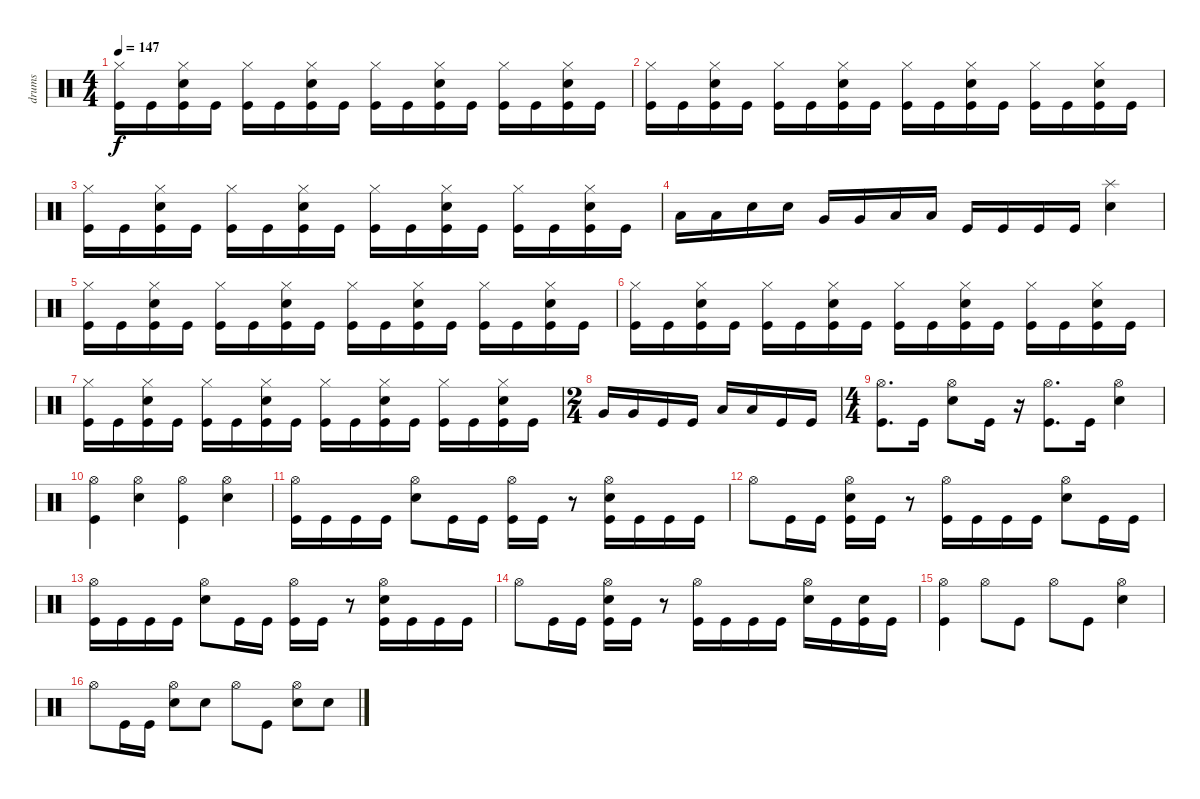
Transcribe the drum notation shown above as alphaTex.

\track ("drums" "drums") {instrument percussion}
\staff {score}
\articulation defaults
\ts (4 4)
\tempo 147
\clef neutral
\ks c
("Kick (hit)" "Hi-Hat (closed)").16{dy f} "Kick (hit)".16 ("Hi-Hat (closed)" "Snare (hit) 2" "Kick (hit)").16 "Kick (hit)".16 ("Hi-Hat (closed)" "Kick (hit)").16 "Kick (hit)".16 ("Kick (hit)" "Hi-Hat (closed)" "Snare (hit) 2").16 "Kick (hit)".16 ("Hi-Hat (closed)" "Kick (hit)").16 "Kick (hit)".16 ("Hi-Hat (closed)" "Kick (hit)" "Snare (hit) 2").16 "Kick (hit)".16 ("Hi-Hat (closed)" "Kick (hit)").16 "Kick (hit)".16 ("Snare (hit) 2" "Hi-Hat (closed)" "Kick (hit)").16 "Kick (hit)".16 |
("Hi-Hat (closed)" "Kick (hit)").16 "Kick (hit)".16 ("Kick (hit)" "Snare (hit) 2" "Hi-Hat (closed)").16 "Kick (hit)".16 ("Kick (hit)" "Hi-Hat (closed)").16 "Kick (hit)".16 ("Hi-Hat (closed)" "Kick (hit)" "Snare (hit) 2").16 "Kick (hit)".16 ("Hi-Hat (closed)" "Kick (hit)").16 "Kick (hit)".16 ("Kick (hit)" "Snare (hit) 2" "Hi-Hat (closed)").16 "Kick (hit)".16 ("Hi-Hat (closed)" "Kick (hit)").16 "Kick (hit)".16 ("Hi-Hat (closed)" "Snare (hit) 2" "Kick (hit)").16 "Kick (hit)".16 |
("Hi-Hat (closed)" "Kick (hit)").16 "Kick (hit)".16 ("Kick (hit)" "Snare (hit) 2" "Hi-Hat (closed)").16 "Kick (hit)".16 ("Kick (hit)" "Hi-Hat (closed)").16 "Kick (hit)".16 ("Hi-Hat (closed)" "Snare (hit) 2" "Kick (hit)").16 "Kick (hit)".16 ("Kick (hit)" "Hi-Hat (closed)").16 "Kick (hit)".16 ("Hi-Hat (closed)" "Kick (hit)" "Snare (hit) 2").16 "Kick (hit)".16 ("Kick (hit)" "Hi-Hat (closed)").16 "Kick (hit)".16 ("Kick (hit)" "Hi-Hat (closed)" "Snare (hit) 2").16 "Kick (hit)".16 |
"Low Floor Tom (hit)".16 "Low Floor Tom (hit)".16 "Snare (hit) 2".16 "Snare (hit) 2".16 "Very Low Tom (hit)".16 "Very Low Tom (hit)".16 "Low Floor Tom (hit)".16 "Low Floor Tom (hit)".16 "Kick (hit)".16 "Kick (hit)".16 "Kick (hit)".16 "Kick (hit)".16 ("Snare (hit) 2" "Splash (hit)").4 |
("Hi-Hat (closed)" "Kick (hit)").16 "Kick (hit)".16 ("Hi-Hat (closed)" "Kick (hit)" "Snare (hit) 2").16 "Kick (hit)".16 ("Hi-Hat (closed)" "Kick (hit)").16 "Kick (hit)".16 ("Snare (hit) 2" "Hi-Hat (closed)" "Kick (hit)").16 "Kick (hit)".16 ("Kick (hit)" "Hi-Hat (closed)").16 "Kick (hit)".16 ("Hi-Hat (closed)" "Snare (hit) 2" "Kick (hit)").16 "Kick (hit)".16 ("Kick (hit)" "Hi-Hat (closed)").16 "Kick (hit)".16 ("Hi-Hat (closed)" "Kick (hit)" "Snare (hit) 2").16 "Kick (hit)".16 |
("Kick (hit)" "Hi-Hat (closed)").16 "Kick (hit)".16 ("Kick (hit)" "Hi-Hat (closed)" "Snare (hit) 2").16 "Kick (hit)".16 ("Hi-Hat (closed)" "Kick (hit)").16 "Kick (hit)".16 ("Hi-Hat (closed)" "Snare (hit) 2" "Kick (hit)").16 "Kick (hit)".16 ("Hi-Hat (closed)" "Kick (hit)").16 "Kick (hit)".16 ("Snare (hit) 2" "Kick (hit)" "Hi-Hat (closed)").16 "Kick (hit)".16 ("Hi-Hat (closed)" "Kick (hit)").16 "Kick (hit)".16 ("Hi-Hat (closed)" "Kick (hit)" "Snare (hit) 2").16 "Kick (hit)".16 |
("Kick (hit)" "Hi-Hat (closed)").16 "Kick (hit)".16 ("Snare (hit) 2" "Kick (hit)" "Hi-Hat (closed)").16 "Kick (hit)".16 ("Kick (hit)" "Hi-Hat (closed)").16 "Kick (hit)".16 ("Snare (hit) 2" "Hi-Hat (closed)" "Kick (hit)").16 "Kick (hit)".16 ("Kick (hit)" "Hi-Hat (closed)").16 "Kick (hit)".16 ("Kick (hit)" "Hi-Hat (closed)" "Snare (hit) 2").16 "Kick (hit)".16 ("Hi-Hat (closed)" "Kick (hit)").16 "Kick (hit)".16 ("Snare (hit) 2" "Kick (hit)" "Hi-Hat (closed)").16 "Kick (hit)".16 |
\ts (2 4)
"Very Low Tom (hit)".16 "Very Low Tom (hit)".16 "Kick (hit)".16 "Kick (hit)".16 "Low Floor Tom (hit)".16 "Low Floor Tom (hit)".16 "Kick (hit)".16 "Kick (hit)".16 |
\ts (4 4)
("Hi-Hat (open)" "Kick (hit)").8{d} "Kick (hit)".16 ("Snare (hit) 2" "Hi-Hat (open)").8 "Kick (hit)".16 r.16 ("Hi-Hat (open)" "Kick (hit)").8{d} "Kick (hit)".16 ("Hi-Hat (open)" "Snare (hit) 2").4 |
("Kick (hit)" "Hi-Hat (open)").4 ("Snare (hit) 2" "Hi-Hat (open)").4 ("Kick (hit)" "Hi-Hat (open)").4 ("Snare (hit) 2" "Hi-Hat (open)").4 |
("Hi-Hat (open)" "Kick (hit)").16 "Kick (hit)".16 "Kick (hit)".16 "Kick (hit)".16 ("Snare (hit) 2" "Hi-Hat (open)").8 "Kick (hit)".16 "Kick (hit)".16 ("Kick (hit)" "Hi-Hat (open)").16 "Kick (hit)".16 r.8 ("Kick (hit)" "Hi-Hat (open)" "Snare (hit) 2").16 "Kick (hit)".16 "Kick (hit)".16 "Kick (hit)".16 |
"Hi-Hat (open)".8 "Kick (hit)".16 "Kick (hit)".16 ("Hi-Hat (open)" "Kick (hit)" "Snare (hit) 2").16 "Kick (hit)".16 r.8 ("Kick (hit)" "Hi-Hat (open)").16 "Kick (hit)".16 "Kick (hit)".16 "Kick (hit)".16 ("Snare (hit) 2" "Hi-Hat (open)").8 "Kick (hit)".16 "Kick (hit)".16 |
("Hi-Hat (open)" "Kick (hit)").16 "Kick (hit)".16 "Kick (hit)".16 "Kick (hit)".16 ("Snare (hit) 2" "Hi-Hat (open)").8 "Kick (hit)".16 "Kick (hit)".16 ("Kick (hit)" "Hi-Hat (open)").16 "Kick (hit)".16 r.8 ("Snare (hit) 2" "Kick (hit)" "Hi-Hat (open)").16 "Kick (hit)".16 "Kick (hit)".16 "Kick (hit)".16 |
"Hi-Hat (open)".8 "Kick (hit)".16 "Kick (hit)".16 ("Hi-Hat (open)" "Kick (hit)" "Snare (hit) 2").16 "Kick (hit)".16 r.8 ("Kick (hit)" "Hi-Hat (open)").16 "Kick (hit)".16 "Kick (hit)".16 "Kick (hit)".16 ("Snare (hit) 2" "Hi-Hat (open)").16 "Kick (hit)".16 ("Snare (hit) 2" "Kick (hit)").16 "Kick (hit)".16 |
("Hi-Hat (open)" "Kick (hit)").4 "Hi-Hat (open)".8 "Kick (hit)".8 "Hi-Hat (open)".8 "Kick (hit)".8 ("Hi-Hat (open)" "Snare (hit) 2").4 |
"Hi-Hat (open)".8 "Kick (hit)".16 "Kick (hit)".16 ("Snare (hit) 2" "Hi-Hat (open)").8 "Snare (hit) 2".8 "Hi-Hat (open)".8 "Kick (hit)".8 ("Snare (hit) 2" "Hi-Hat (open)").8 "Snare (hit) 2".8
